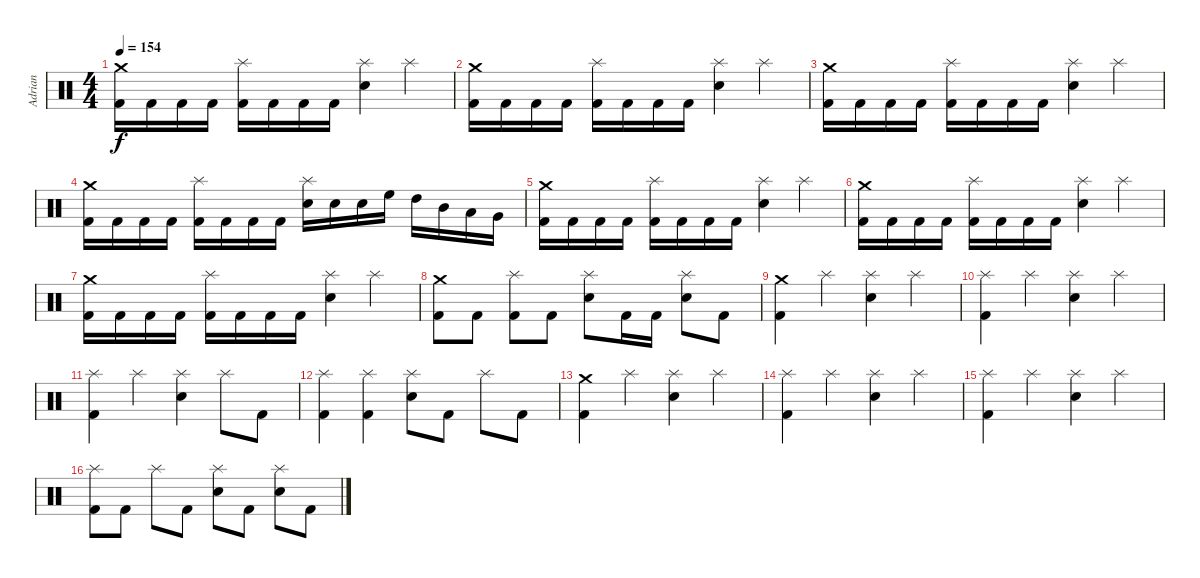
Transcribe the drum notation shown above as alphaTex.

\track ("Adrian" "Adrian") {instrument percussion}
\staff {score}
\articulation defaults
\ts (4 4)
\tempo 154
\clef neutral
\ks c
("Crash medium (hit)" "Kick (hit) 2").16{dy f} "Kick (hit) 2".16 "Kick (hit) 2".16 "Kick (hit) 2".16 ("Splash (hit)" "Kick (hit) 2").16 "Kick (hit) 2".16 "Kick (hit) 2".16 "Kick (hit) 2".16 ("Splash (hit)" "Electric Snare (hit)").4 "Splash (hit)".4 |
("Crash medium (hit)" "Kick (hit) 2").16 "Kick (hit) 2".16 "Kick (hit) 2".16 "Kick (hit) 2".16 ("Splash (hit)" "Kick (hit) 2").16 "Kick (hit) 2".16 "Kick (hit) 2".16 "Kick (hit) 2".16 ("Splash (hit)" "Electric Snare (hit)").4 "Splash (hit)".4 |
("Crash medium (hit)" "Kick (hit) 2").16 "Kick (hit) 2".16 "Kick (hit) 2".16 "Kick (hit) 2".16 ("Splash (hit)" "Kick (hit) 2").16 "Kick (hit) 2".16 "Kick (hit) 2".16 "Kick (hit) 2".16 ("Splash (hit)" "Electric Snare (hit)").4 "Splash (hit)".4 |
("Crash medium (hit)" "Kick (hit) 2").16 "Kick (hit) 2".16 "Kick (hit) 2".16 "Kick (hit) 2".16 ("Splash (hit)" "Kick (hit) 2").16 "Kick (hit) 2".16 "Kick (hit) 2".16 "Kick (hit) 2".16 ("Splash (hit)" "Electric Snare (hit)").16 "Electric Snare (hit)".16 "Electric Snare (hit)".16 "High Floor Tom (hit)".16 "High Tom (hit)".16 "Mid Tom (hit)".16 "Low Tom (hit)".16 "Very Low Tom (hit)".16 |
("Crash medium (hit)" "Kick (hit) 2").16 "Kick (hit) 2".16 "Kick (hit) 2".16 "Kick (hit) 2".16 ("Splash (hit)" "Kick (hit) 2").16 "Kick (hit) 2".16 "Kick (hit) 2".16 "Kick (hit) 2".16 ("Splash (hit)" "Electric Snare (hit)").4 "Splash (hit)".4 |
("Crash medium (hit)" "Kick (hit) 2").16 "Kick (hit) 2".16 "Kick (hit) 2".16 "Kick (hit) 2".16 ("Splash (hit)" "Kick (hit) 2").16 "Kick (hit) 2".16 "Kick (hit) 2".16 "Kick (hit) 2".16 ("Splash (hit)" "Electric Snare (hit)").4 "Splash (hit)".4 |
("Crash medium (hit)" "Kick (hit) 2").16 "Kick (hit) 2".16 "Kick (hit) 2".16 "Kick (hit) 2".16 ("Splash (hit)" "Kick (hit) 2").16 "Kick (hit) 2".16 "Kick (hit) 2".16 "Kick (hit) 2".16 ("Splash (hit)" "Electric Snare (hit)").4 "Splash (hit)".4 |
("Crash medium (hit)" "Kick (hit) 2").8 "Kick (hit) 2".8 ("Splash (hit)" "Kick (hit) 2").8 "Kick (hit) 2".8 ("Splash (hit)" "Electric Snare (hit)").8 "Kick (hit) 2".16 "Kick (hit) 2".16 ("Splash (hit)" "Electric Snare (hit)").8 "Kick (hit) 2".8 |
("Crash medium (hit)" "Kick (hit) 2").4 "Splash (hit)".4 ("Splash (hit)" "Electric Snare (hit)").4 "Splash (hit)".4 |
("Splash (hit)" "Kick (hit) 2").4 "Splash (hit)".4 ("Splash (hit)" "Electric Snare (hit)").4 "Splash (hit)".4 |
("Splash (hit)" "Kick (hit) 2").4 "Splash (hit)".4 ("Splash (hit)" "Electric Snare (hit)").4 "Splash (hit)".8 "Kick (hit) 2".8 |
("Splash (hit)" "Kick (hit) 2").4 ("Splash (hit)" "Kick (hit) 2").4 ("Splash (hit)" "Electric Snare (hit)").8 "Kick (hit) 2".8 "Splash (hit)".8 "Kick (hit) 2".8 |
("Crash medium (hit)" "Kick (hit) 2").4 "Splash (hit)".4 ("Splash (hit)" "Electric Snare (hit)").4 "Splash (hit)".4 |
("Splash (hit)" "Kick (hit) 2").4 "Splash (hit)".4 ("Splash (hit)" "Electric Snare (hit)").4 "Splash (hit)".4 |
("Splash (hit)" "Kick (hit) 2").4 "Splash (hit)".4 ("Splash (hit)" "Electric Snare (hit)").4 "Splash (hit)".4 |
("Splash (hit)" "Kick (hit) 2").8 "Kick (hit) 2".8 "Splash (hit)".8 "Kick (hit) 2".8 ("Splash (hit)" "Electric Snare (hit)").8 "Kick (hit) 2".8 ("Splash (hit)" "Electric Snare (hit)").8 "Kick (hit) 2".8
